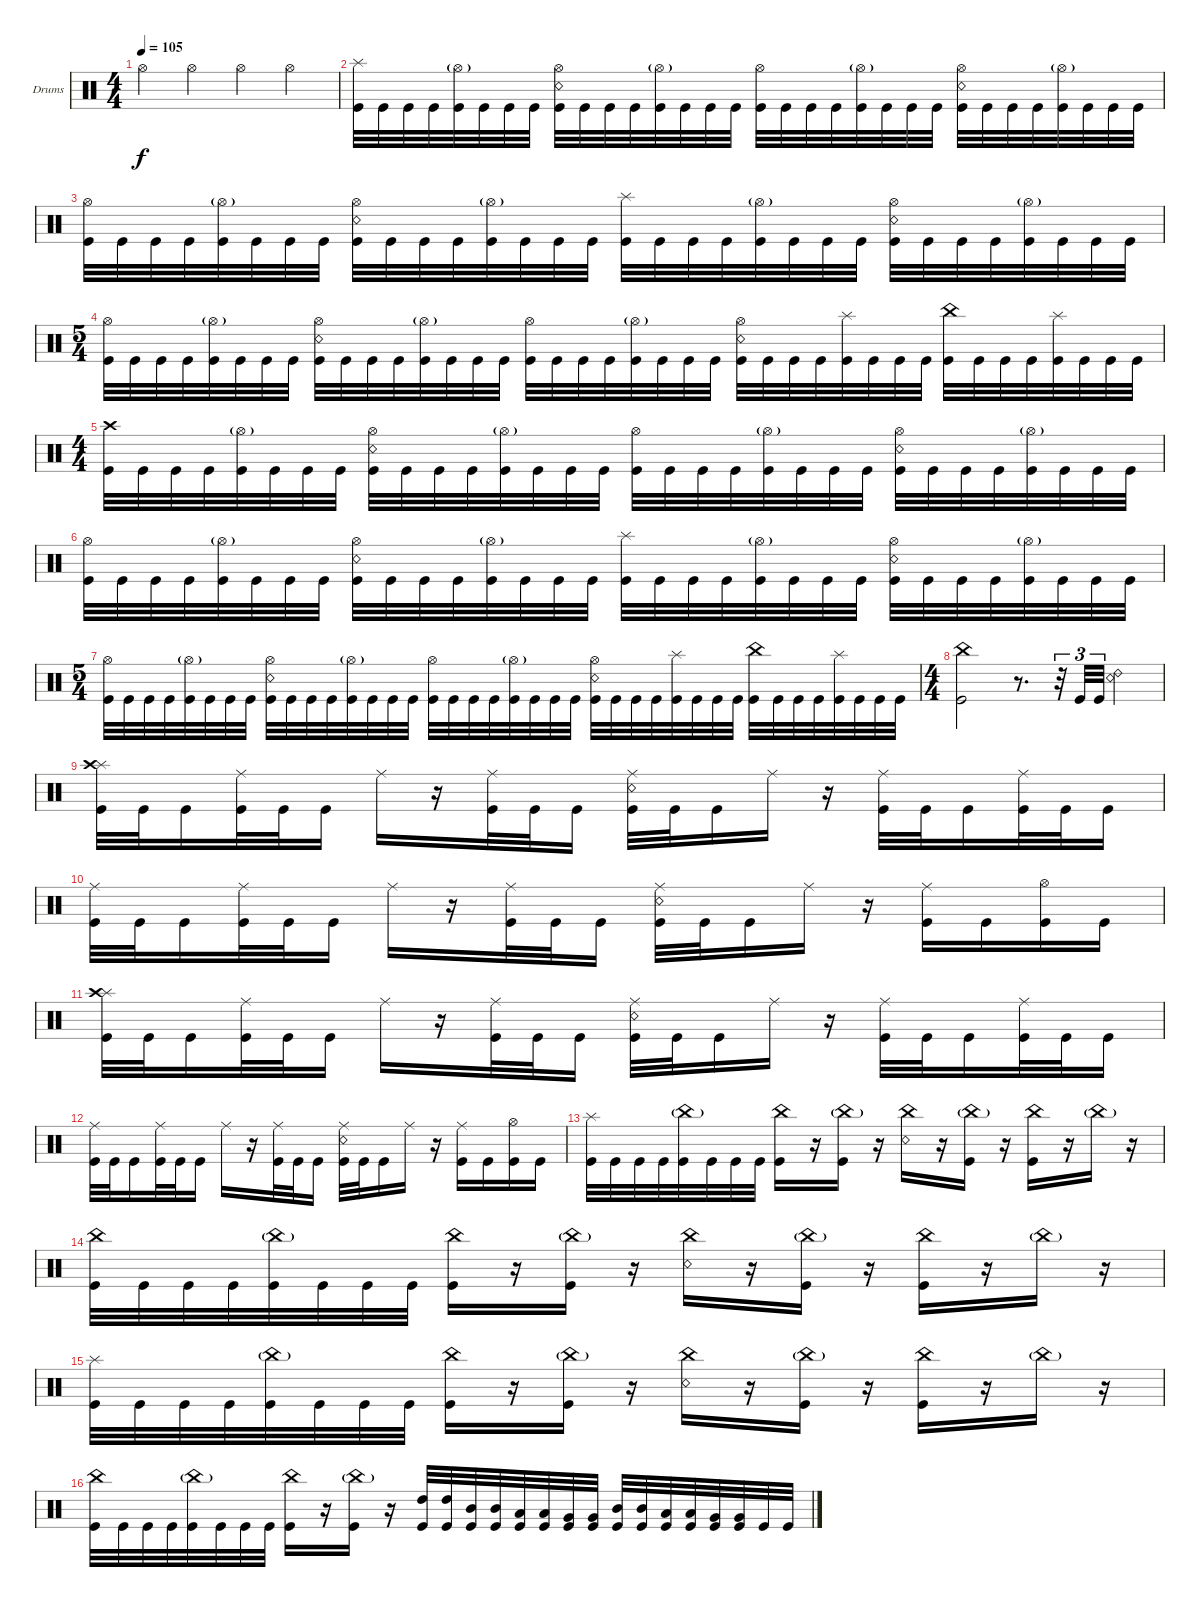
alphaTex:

\defaultSystemsLayout 4
\bracketExtendMode groupsimilarinstruments
\firstSystemTrackNameOrientation horizontal
\otherSystemsTrackNameOrientation horizontal
\track ("Drumkit" "Drums") {instrument percussion}
\staff {score}
\articulation defaults
\ts (4 4)
\tempo 105
\clef neutral
\ks c "Hi-Hat (open)".4{dy f} "Hi-Hat (open)".4 "Hi-Hat (open)".4 "Hi-Hat (open)".4
|
("Kick (hit)" "Splash (hit)").32 "Kick (hit)".32 "Kick (hit)".32 "Kick (hit)".32 ("Kick (hit)" "Hi-Hat (open)"{g}).32 "Kick (hit)".32 "Kick (hit)".32 "Kick (hit)".32 ("Kick (hit)" "Snare (rim shot)" "Hi-Hat (open)").32 "Kick (hit)".32 "Kick (hit)".32 "Kick (hit)".32 ("Kick (hit)" "Hi-Hat (open)"{g}).32 "Kick (hit)".32 "Kick (hit)".32 "Kick (hit)".32 ("Kick (hit)" "Hi-Hat (open)").32 "Kick (hit)".32 "Kick (hit)".32 "Kick (hit)".32 ("Kick (hit)" "Hi-Hat (open)"{g}).32 "Kick (hit)".32 "Kick (hit)".32 "Kick (hit)".32 ("Kick (hit)" "Snare (rim shot)" "Hi-Hat (open)").32 "Kick (hit)".32 "Kick (hit)".32 "Kick (hit)".32 ("Kick (hit)" "Hi-Hat (open)"{g}).32 "Kick (hit)".32 "Kick (hit)".32 "Kick (hit)".32 |
("Kick (hit)" "Hi-Hat (open)").32 "Kick (hit)".32 "Kick (hit)".32 "Kick (hit)".32 ("Kick (hit)" "Hi-Hat (open)"{g}).32 "Kick (hit)".32 "Kick (hit)".32 "Kick (hit)".32 ("Kick (hit)" "Snare (rim shot)" "Hi-Hat (open)").32 "Kick (hit)".32 "Kick (hit)".32 "Kick (hit)".32 ("Kick (hit)" "Hi-Hat (open)"{g}).32 "Kick (hit)".32 "Kick (hit)".32 "Kick (hit)".32 ("Kick (hit)" "Splash (hit)").32 "Kick (hit)".32 "Kick (hit)".32 "Kick (hit)".32 ("Kick (hit)" "Hi-Hat (open)"{g}).32 "Kick (hit)".32 "Kick (hit)".32 "Kick (hit)".32 ("Kick (hit)" "Snare (rim shot)" "Hi-Hat (open)").32 "Kick (hit)".32 "Kick (hit)".32 "Kick (hit)".32 ("Kick (hit)" "Hi-Hat (open)"{g}).32 "Kick (hit)".32 "Kick (hit)".32 "Kick (hit)".32 |
\ts (5 4)
("Kick (hit)" "Hi-Hat (open)").32 "Kick (hit)".32 "Kick (hit)".32 "Kick (hit)".32 ("Kick (hit)" "Hi-Hat (open)"{g}).32 "Kick (hit)".32 "Kick (hit)".32 "Kick (hit)".32{beam split} ("Kick (hit)" "Snare (rim shot)" "Hi-Hat (open)").32 "Kick (hit)".32 "Kick (hit)".32 "Kick (hit)".32 ("Kick (hit)" "Hi-Hat (open)"{g}).32 "Kick (hit)".32 "Kick (hit)".32 "Kick (hit)".32{beam split} ("Kick (hit)" "Hi-Hat (open)").32 "Kick (hit)".32 "Kick (hit)".32 "Kick (hit)".32 ("Kick (hit)" "Hi-Hat (open)"{g}).32 "Kick (hit)".32 "Kick (hit)".32 "Kick (hit)".32 ("Kick (hit)" "Snare (rim shot)" "Hi-Hat (open)").32 "Kick (hit)".32 "Kick (hit)".32 "Kick (hit)".32 ("Kick (hit)" "Splash (hit)").32 "Kick (hit)".32 "Kick (hit)".32 "Kick (hit)".32{beam split} ("Kick (hit)" "China (hit)").32 "Kick (hit)".32 "Kick (hit)".32 "Kick (hit)".32 ("Kick (hit)" "Splash (hit)").32 "Kick (hit)".32 "Kick (hit)".32 "Kick (hit)".32 |
\ts (4 4)
("Kick (hit)" "Crash high (hit)").32 "Kick (hit)".32 "Kick (hit)".32 "Kick (hit)".32 ("Kick (hit)" "Hi-Hat (open)"{g}).32 "Kick (hit)".32 "Kick (hit)".32 "Kick (hit)".32 ("Kick (hit)" "Snare (rim shot)" "Hi-Hat (open)").32 "Kick (hit)".32 "Kick (hit)".32 "Kick (hit)".32 ("Kick (hit)" "Hi-Hat (open)"{g}).32 "Kick (hit)".32 "Kick (hit)".32 "Kick (hit)".32 ("Kick (hit)" "Hi-Hat (open)").32 "Kick (hit)".32 "Kick (hit)".32 "Kick (hit)".32 ("Kick (hit)" "Hi-Hat (open)"{g}).32 "Kick (hit)".32 "Kick (hit)".32 "Kick (hit)".32 ("Kick (hit)" "Snare (rim shot)" "Hi-Hat (open)").32 "Kick (hit)".32 "Kick (hit)".32 "Kick (hit)".32 ("Kick (hit)" "Hi-Hat (open)"{g}).32 "Kick (hit)".32 "Kick (hit)".32 "Kick (hit)".32 |
("Kick (hit)" "Hi-Hat (open)").32 "Kick (hit)".32 "Kick (hit)".32 "Kick (hit)".32 ("Kick (hit)" "Hi-Hat (open)"{g}).32 "Kick (hit)".32 "Kick (hit)".32 "Kick (hit)".32 ("Kick (hit)" "Snare (rim shot)" "Hi-Hat (open)").32 "Kick (hit)".32 "Kick (hit)".32 "Kick (hit)".32 ("Kick (hit)" "Hi-Hat (open)"{g}).32 "Kick (hit)".32 "Kick (hit)".32 "Kick (hit)".32 ("Kick (hit)" "Splash (hit)").32 "Kick (hit)".32 "Kick (hit)".32 "Kick (hit)".32 ("Kick (hit)" "Hi-Hat (open)"{g}).32 "Kick (hit)".32 "Kick (hit)".32 "Kick (hit)".32 ("Kick (hit)" "Snare (rim shot)" "Hi-Hat (open)").32 "Kick (hit)".32 "Kick (hit)".32 "Kick (hit)".32 ("Kick (hit)" "Hi-Hat (open)"{g}).32 "Kick (hit)".32 "Kick (hit)".32 "Kick (hit)".32 |
\ts (5 4)
("Kick (hit)" "Hi-Hat (open)").32 "Kick (hit)".32 "Kick (hit)".32 "Kick (hit)".32 ("Kick (hit)" "Hi-Hat (open)"{g}).32 "Kick (hit)".32 "Kick (hit)".32 "Kick (hit)".32{beam split} ("Kick (hit)" "Snare (rim shot)" "Hi-Hat (open)").32 "Kick (hit)".32 "Kick (hit)".32 "Kick (hit)".32 ("Kick (hit)" "Hi-Hat (open)"{g}).32 "Kick (hit)".32 "Kick (hit)".32 "Kick (hit)".32{beam split} ("Kick (hit)" "Hi-Hat (open)").32 "Kick (hit)".32 "Kick (hit)".32 "Kick (hit)".32 ("Kick (hit)" "Hi-Hat (open)"{g}).32 "Kick (hit)".32 "Kick (hit)".32 "Kick (hit)".32 ("Kick (hit)" "Snare (rim shot)" "Hi-Hat (open)").32 "Kick (hit)".32 "Kick (hit)".32 "Kick (hit)".32 ("Kick (hit)" "Splash (hit)").32 "Kick (hit)".32 "Kick (hit)".32 "Kick (hit)".32{beam split} ("Kick (hit)" "China (hit)").32 "Kick (hit)".32 "Kick (hit)".32 "Kick (hit)".32 ("Kick (hit)" "Splash (hit)").32 "Kick (hit)".32 "Kick (hit)".32 "Kick (hit)".32 |
\ts (4 4)
("Kick (hit)" "China (hit)").2 r.8{d} r.32{tu (3 2)} "Kick (hit)".32{tu (3 2)} "Kick (hit)".32{tu (3 2)} ("Ride (bell) 2" "Snare (rim shot)").4 |
("Kick (hit)" "Splash (hit)" "Crash high (hit)").32 "Kick (hit)".32 "Kick (hit)".16 ("Kick (hit)" "Ride (middle)").32 "Kick (hit)".32 "Kick (hit)".16 "Ride (middle)".16 r.16 ("Kick (hit)" "Ride (middle)").32 "Kick (hit)".32 "Kick (hit)".16 ("Kick (hit)" "Ride (middle)" "Snare (rim shot)").32 "Kick (hit)".32 "Kick (hit)".16 "Ride (middle)".16 r.16 ("Kick (hit)" "Ride (middle)").32 "Kick (hit)".32 "Kick (hit)".16 ("Kick (hit)" "Ride (middle)").32 "Kick (hit)".32 "Kick (hit)".16 |
("Kick (hit)" "Ride (middle)").32 "Kick (hit)".32 "Kick (hit)".16 ("Kick (hit)" "Ride (middle)").32 "Kick (hit)".32 "Kick (hit)".16 "Ride (middle)".16 r.16 ("Kick (hit)" "Ride (middle)").32 "Kick (hit)".32 "Kick (hit)".16 ("Kick (hit)" "Snare (rim shot)" "Ride (middle)").32 "Kick (hit)".32 "Kick (hit)".16 "Ride (middle)".16 r.16 ("Kick (hit)" "Ride (middle)").16 "Kick (hit)".16 ("Kick (hit)" "Hi-Hat (open)").16 "Kick (hit)".16 |
("Kick (hit)" "Splash (hit)" "Crash high (hit)").32 "Kick (hit)".32 "Kick (hit)".16 ("Kick (hit)" "Ride (middle)").32 "Kick (hit)".32 "Kick (hit)".16 "Ride (middle)".16 r.16 ("Kick (hit)" "Ride (middle)").32 "Kick (hit)".32 "Kick (hit)".16 ("Kick (hit)" "Ride (middle)" "Snare (rim shot)").32 "Kick (hit)".32 "Kick (hit)".16 "Ride (middle)".16 r.16 ("Kick (hit)" "Ride (middle)").32 "Kick (hit)".32 "Kick (hit)".16 ("Kick (hit)" "Ride (middle)").32 "Kick (hit)".32 "Kick (hit)".16 |
("Kick (hit)" "Ride (middle)").32 "Kick (hit)".32 "Kick (hit)".16 ("Kick (hit)" "Ride (middle)").32 "Kick (hit)".32 "Kick (hit)".16 "Ride (middle)".16 r.16 ("Kick (hit)" "Ride (middle)").32 "Kick (hit)".32 "Kick (hit)".16 ("Kick (hit)" "Snare (rim shot)" "Ride (middle)").32 "Kick (hit)".32 "Kick (hit)".16 "Ride (middle)".16 r.16 ("Kick (hit)" "Ride (middle)").16 "Kick (hit)".16 ("Kick (hit)" "Hi-Hat (open)").16 "Kick (hit)".16 |
("Kick (hit)" "Splash (hit)").32 "Kick (hit)".32 "Kick (hit)".32 "Kick (hit)".32 ("Kick (hit)" "China (hit)"{g}).32 "Kick (hit)".32 "Kick (hit)".32 "Kick (hit)".32 ("Kick (hit)" "China (hit)").16 r.16 ("Kick (hit)" "China (hit)"{g}).16 r.16 ("Snare (rim shot)" "China (hit)").16 r.16 ("Kick (hit)" "China (hit)"{g}).16 r.16 ("Kick (hit)" "China (hit)").16 r.16 "China (hit)"{g}.16 r.16 |
("Kick (hit)" "China (hit)").32 "Kick (hit)".32 "Kick (hit)".32 "Kick (hit)".32 ("Kick (hit)" "China (hit)"{g}).32 "Kick (hit)".32 "Kick (hit)".32 "Kick (hit)".32 ("Kick (hit)" "China (hit)").16 r.16 ("Kick (hit)" "China (hit)"{g}).16 r.16 ("Snare (rim shot)" "China (hit)").16 r.16 ("Kick (hit)" "China (hit)"{g}).16 r.16 ("Kick (hit)" "China (hit)").16 r.16 "China (hit)"{g}.16 r.16 |
("Kick (hit)" "Splash (hit)").32 "Kick (hit)".32 "Kick (hit)".32 "Kick (hit)".32 ("Kick (hit)" "China (hit)"{g}).32 "Kick (hit)".32 "Kick (hit)".32 "Kick (hit)".32 ("Kick (hit)" "China (hit)").16 r.16 ("Kick (hit)" "China (hit)"{g}).16 r.16 ("Snare (rim shot)" "China (hit)").16 r.16 ("Kick (hit)" "China (hit)"{g}).16 r.16 ("Kick (hit)" "China (hit)").16 r.16 "China (hit)"{g}.16 r.16 |
("Kick (hit)" "China (hit)").32 "Kick (hit)".32 "Kick (hit)".32 "Kick (hit)".32 ("Kick (hit)" "China (hit)"{g}).32 "Kick (hit)".32 "Kick (hit)".32 "Kick (hit)".32 ("Kick (hit)" "China (hit)").16 r.16 ("Kick (hit)" "China (hit)"{g}).16 r.16 ("High Tom (hit)" "Kick (hit)").32 ("High Tom (hit)" "Kick (hit)").32 ("Mid Tom (hit)" "Kick (hit)").32 ("Mid Tom (hit)" "Kick (hit)").32 ("Low Tom (hit)" "Kick (hit)").32 ("Low Tom (hit)" "Kick (hit)").32 ("Very Low Tom (hit)" "Kick (hit)").32 ("Very Low Tom (hit)" "Kick (hit)").32 ("Mid Tom (hit)" "Kick (hit)").32 ("Mid Tom (hit)" "Kick (hit)").32 ("Low Tom (hit)" "Kick (hit)").32 ("Low Tom (hit)" "Kick (hit)").32 ("Very Low Tom (hit)" "Kick (hit)").32 ("Very Low Tom (hit)" "Kick (hit)").32 "Kick (hit)".32 "Kick (hit)".32
